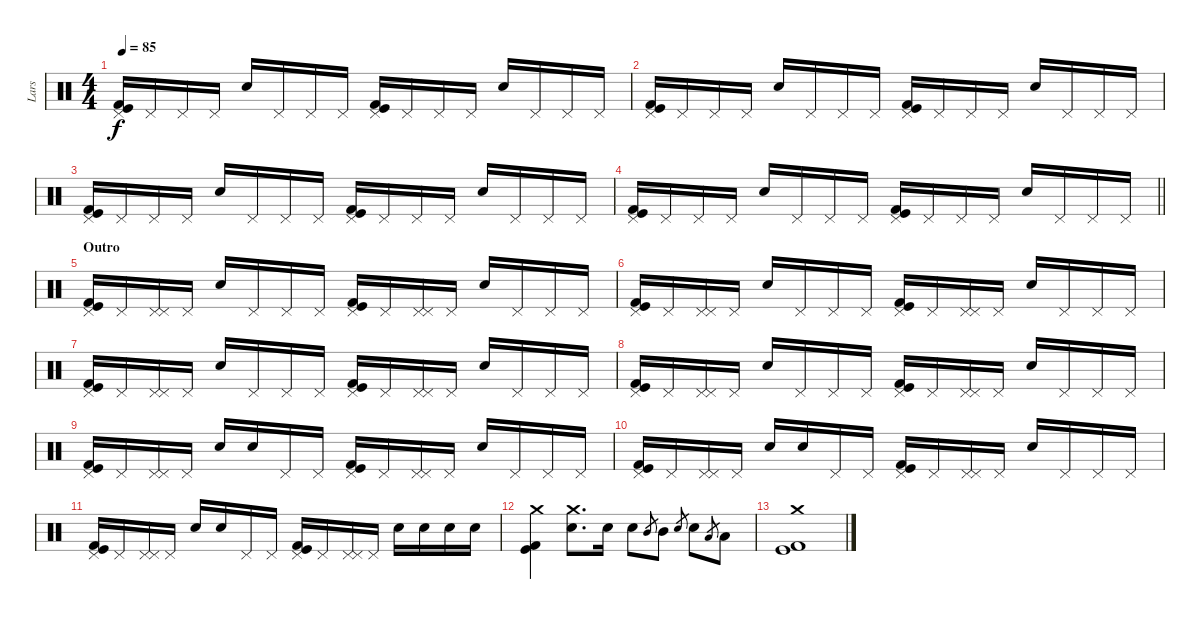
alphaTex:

\track ("Lars" "Lars") {instrument percussion}
\staff {score}
\articulation defaults
\ts (4 4)
\tempo 85
\clef neutral
\ks c
("Pedal Hi-Hat (hit)" "Kick (hit)" "Kick (hit) 2").16{dy f} "Pedal Hi-Hat (hit)".16 "Pedal Hi-Hat (hit)".16 "Pedal Hi-Hat (hit)".16 "Electric Snare (hit)".16 "Pedal Hi-Hat (hit)".16 "Pedal Hi-Hat (hit)".16 "Pedal Hi-Hat (hit)".16 ("Pedal Hi-Hat (hit)" "Kick (hit)" "Kick (hit) 2").16 "Pedal Hi-Hat (hit)".16 "Pedal Hi-Hat (hit)".16 "Pedal Hi-Hat (hit)".16 "Electric Snare (hit)".16 "Pedal Hi-Hat (hit)".16 "Pedal Hi-Hat (hit)".16 "Pedal Hi-Hat (hit)".16 |
("Pedal Hi-Hat (hit)" "Kick (hit)" "Kick (hit) 2").16 "Pedal Hi-Hat (hit)".16 "Pedal Hi-Hat (hit)".16 "Pedal Hi-Hat (hit)".16 "Electric Snare (hit)".16 "Pedal Hi-Hat (hit)".16 "Pedal Hi-Hat (hit)".16 "Pedal Hi-Hat (hit)".16 ("Pedal Hi-Hat (hit)" "Kick (hit)" "Kick (hit) 2").16 "Pedal Hi-Hat (hit)".16 "Pedal Hi-Hat (hit)".16 "Pedal Hi-Hat (hit)".16 "Electric Snare (hit)".16 "Pedal Hi-Hat (hit)".16 "Pedal Hi-Hat (hit)".16 "Pedal Hi-Hat (hit)".16 |
("Pedal Hi-Hat (hit)" "Kick (hit)" "Kick (hit) 2").16 "Pedal Hi-Hat (hit)".16 "Pedal Hi-Hat (hit)".16 "Pedal Hi-Hat (hit)".16 "Electric Snare (hit)".16 "Pedal Hi-Hat (hit)".16 "Pedal Hi-Hat (hit)".16 "Pedal Hi-Hat (hit)".16 ("Pedal Hi-Hat (hit)" "Kick (hit)" "Kick (hit) 2").16 "Pedal Hi-Hat (hit)".16 "Pedal Hi-Hat (hit)".16 "Pedal Hi-Hat (hit)".16 "Electric Snare (hit)".16 "Pedal Hi-Hat (hit)".16 "Pedal Hi-Hat (hit)".16 "Pedal Hi-Hat (hit)".16 |
\barLineRight lightlight
("Pedal Hi-Hat (hit)" "Kick (hit)" "Kick (hit) 2").16 "Pedal Hi-Hat (hit)".16 "Pedal Hi-Hat (hit)".16 "Pedal Hi-Hat (hit)".16 "Electric Snare (hit)".16 "Pedal Hi-Hat (hit)".16 "Pedal Hi-Hat (hit)".16 "Pedal Hi-Hat (hit)".16 ("Pedal Hi-Hat (hit)" "Kick (hit)" "Kick (hit) 2").16 "Pedal Hi-Hat (hit)".16 "Pedal Hi-Hat (hit)".16 "Pedal Hi-Hat (hit)".16 "Electric Snare (hit)".16 "Pedal Hi-Hat (hit)".16 "Pedal Hi-Hat (hit)".16 "Pedal Hi-Hat (hit)".16 |
\section ("" "Outro")
("Pedal Hi-Hat (hit)" "Kick (hit)" "Kick (hit) 2").16 "Pedal Hi-Hat (hit)".16 ("Pedal Hi-Hat (hit)" "Pedal Hi-Hat (hit)").16 "Pedal Hi-Hat (hit)".16 "Electric Snare (hit)".16 "Pedal Hi-Hat (hit)".16 "Pedal Hi-Hat (hit)".16 "Pedal Hi-Hat (hit)".16 ("Pedal Hi-Hat (hit)" "Kick (hit)" "Kick (hit) 2").16 "Pedal Hi-Hat (hit)".16 ("Pedal Hi-Hat (hit)" "Pedal Hi-Hat (hit)").16 "Pedal Hi-Hat (hit)".16 "Electric Snare (hit)".16 "Pedal Hi-Hat (hit)".16 "Pedal Hi-Hat (hit)".16 "Pedal Hi-Hat (hit)".16 |
("Pedal Hi-Hat (hit)" "Kick (hit)" "Kick (hit) 2").16 "Pedal Hi-Hat (hit)".16 ("Pedal Hi-Hat (hit)" "Pedal Hi-Hat (hit)").16 "Pedal Hi-Hat (hit)".16 "Electric Snare (hit)".16 "Pedal Hi-Hat (hit)".16 "Pedal Hi-Hat (hit)".16 "Pedal Hi-Hat (hit)".16 ("Pedal Hi-Hat (hit)" "Kick (hit)" "Kick (hit) 2").16 "Pedal Hi-Hat (hit)".16 ("Pedal Hi-Hat (hit)" "Pedal Hi-Hat (hit)").16 "Pedal Hi-Hat (hit)".16 "Electric Snare (hit)".16 "Pedal Hi-Hat (hit)".16 "Pedal Hi-Hat (hit)".16 "Pedal Hi-Hat (hit)".16 |
("Pedal Hi-Hat (hit)" "Kick (hit)" "Kick (hit) 2").16 "Pedal Hi-Hat (hit)".16 ("Pedal Hi-Hat (hit)" "Pedal Hi-Hat (hit)").16 "Pedal Hi-Hat (hit)".16 "Electric Snare (hit)".16 "Pedal Hi-Hat (hit)".16 "Pedal Hi-Hat (hit)".16 "Pedal Hi-Hat (hit)".16 ("Pedal Hi-Hat (hit)" "Kick (hit)" "Kick (hit) 2").16 "Pedal Hi-Hat (hit)".16 ("Pedal Hi-Hat (hit)" "Pedal Hi-Hat (hit)").16 "Pedal Hi-Hat (hit)".16 "Electric Snare (hit)".16 "Pedal Hi-Hat (hit)".16 "Pedal Hi-Hat (hit)".16 "Pedal Hi-Hat (hit)".16 |
("Pedal Hi-Hat (hit)" "Kick (hit)" "Kick (hit) 2").16 "Pedal Hi-Hat (hit)".16 ("Pedal Hi-Hat (hit)" "Pedal Hi-Hat (hit)").16 "Pedal Hi-Hat (hit)".16 "Electric Snare (hit)".16 "Pedal Hi-Hat (hit)".16 "Pedal Hi-Hat (hit)".16 "Pedal Hi-Hat (hit)".16 ("Pedal Hi-Hat (hit)" "Kick (hit)" "Kick (hit) 2").16 "Pedal Hi-Hat (hit)".16 ("Pedal Hi-Hat (hit)" "Pedal Hi-Hat (hit)").16 "Pedal Hi-Hat (hit)".16 "Electric Snare (hit)".16 "Pedal Hi-Hat (hit)".16 "Pedal Hi-Hat (hit)".16 "Pedal Hi-Hat (hit)".16 |
("Pedal Hi-Hat (hit)" "Kick (hit)" "Kick (hit) 2").16 "Pedal Hi-Hat (hit)".16 ("Pedal Hi-Hat (hit)" "Pedal Hi-Hat (hit)").16 "Pedal Hi-Hat (hit)".16 "Electric Snare (hit)".16 "Electric Snare (hit)".16 "Pedal Hi-Hat (hit)".16 "Pedal Hi-Hat (hit)".16 ("Pedal Hi-Hat (hit)" "Kick (hit)" "Kick (hit) 2").16 "Pedal Hi-Hat (hit)".16 ("Pedal Hi-Hat (hit)" "Pedal Hi-Hat (hit)").16 "Pedal Hi-Hat (hit)".16 "Electric Snare (hit)".16 "Pedal Hi-Hat (hit)".16 "Pedal Hi-Hat (hit)".16 "Pedal Hi-Hat (hit)".16 |
("Pedal Hi-Hat (hit)" "Kick (hit)" "Kick (hit) 2").16 "Pedal Hi-Hat (hit)".16 ("Pedal Hi-Hat (hit)" "Pedal Hi-Hat (hit)").16 "Pedal Hi-Hat (hit)".16 "Electric Snare (hit)".16 "Electric Snare (hit)".16 "Pedal Hi-Hat (hit)".16 "Pedal Hi-Hat (hit)".16 ("Pedal Hi-Hat (hit)" "Kick (hit)" "Kick (hit) 2").16 "Pedal Hi-Hat (hit)".16 ("Pedal Hi-Hat (hit)" "Pedal Hi-Hat (hit)").16 "Pedal Hi-Hat (hit)".16 "Electric Snare (hit)".16 "Pedal Hi-Hat (hit)".16 "Pedal Hi-Hat (hit)".16 "Pedal Hi-Hat (hit)".16 |
("Pedal Hi-Hat (hit)" "Kick (hit)" "Kick (hit) 2").16 "Pedal Hi-Hat (hit)".16 ("Pedal Hi-Hat (hit)" "Pedal Hi-Hat (hit)").16 "Pedal Hi-Hat (hit)".16 "Electric Snare (hit)".16 "Electric Snare (hit)".16 "Pedal Hi-Hat (hit)".16 "Pedal Hi-Hat (hit)".16 ("Pedal Hi-Hat (hit)" "Kick (hit)" "Kick (hit) 2").16 "Pedal Hi-Hat (hit)".16 ("Pedal Hi-Hat (hit)" "Pedal Hi-Hat (hit)").16 "Pedal Hi-Hat (hit)".16 "Electric Snare (hit)".16 "Electric Snare (hit)".16 "Electric Snare (hit)".16 "Electric Snare (hit)".16 |
("Crash medium (hit)" "Kick (hit)" "Kick (hit) 2").4 ("Crash medium (hit)" "Electric Snare (hit)").8{d} "Electric Snare (hit)".16 "Electric Snare (hit)".8 "Mid Tom (hit)".8{gr} "Mid Tom (hit)".8 "Electric Snare (hit)".8{gr} "Electric Snare (hit)".8 "Low Tom (hit)".8{gr} "Low Tom (hit)".8 |
("Crash medium (hit)" "Kick (hit)" "Kick (hit) 2").1
